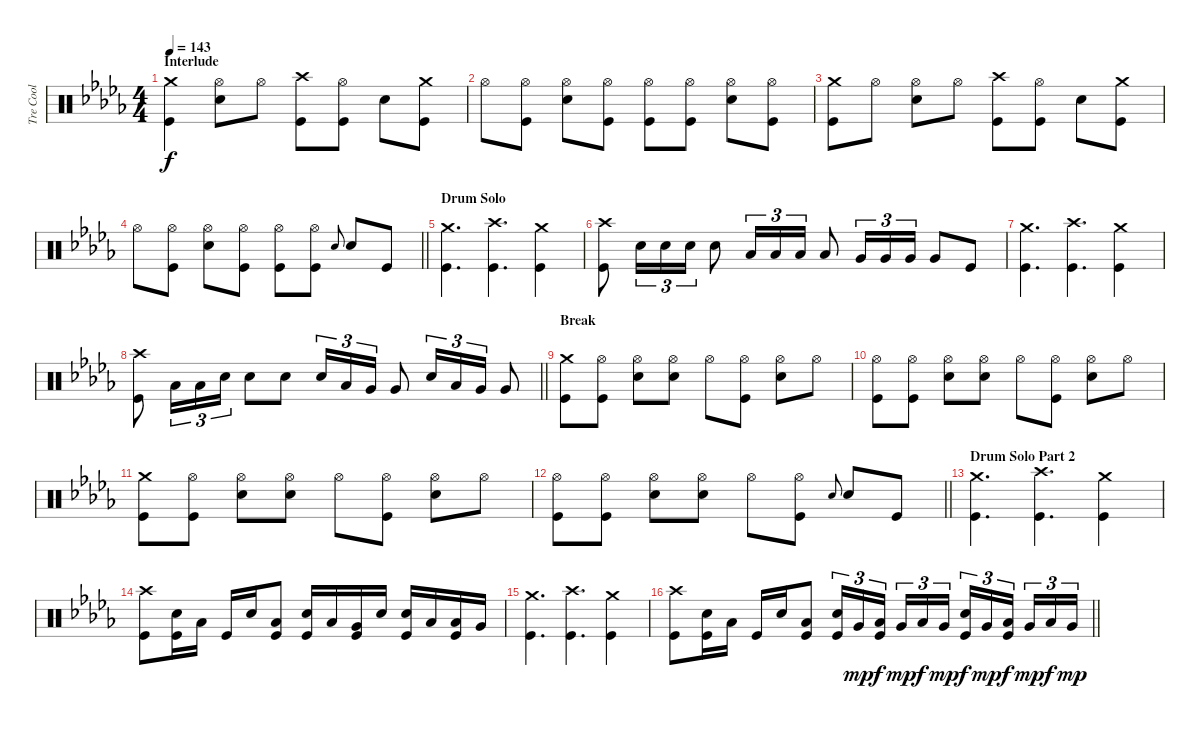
\track ("Tre Cool" "Tre Cool") {instrument percussion}
\staff {score}
\articulation defaults
\ts (4 4)
\section ("" "Interlude")
\tempo 143
\clef neutral
\ks db
("Crash medium (hit)" "Kick (hit)").4{dy f} ("Hi-Hat (open)" "Electric Snare (hit)").8 "Hi-Hat (open)".8 ("Crash high (hit)" "Kick (hit)").8 ("Hi-Hat (open)" "Kick (hit)").8 "Electric Snare (hit)".8 ("Crash medium (hit)" "Kick (hit)").8 |
"Hi-Hat (open)".8 ("Hi-Hat (open)" "Kick (hit)").8 ("Hi-Hat (open)" "Electric Snare (hit)").8 ("Hi-Hat (open)" "Kick (hit)").8 ("Hi-Hat (open)" "Kick (hit)").8 ("Hi-Hat (open)" "Kick (hit)").8 ("Hi-Hat (open)" "Electric Snare (hit)").8 ("Hi-Hat (open)" "Kick (hit)").8 |
("Crash medium (hit)" "Kick (hit)").8 "Hi-Hat (open)".8 ("Hi-Hat (open)" "Electric Snare (hit)").8 "Hi-Hat (open)".8 ("Crash high (hit)" "Kick (hit)").8 ("Hi-Hat (open)" "Kick (hit)").8 "Electric Snare (hit)".8 ("Crash medium (hit)" "Kick (hit)").8 |
\barLineRight lightlight "Hi-Hat (open)".8
("Hi-Hat (open)" "Kick (hit)").8 ("Hi-Hat (open)" "Electric Snare (hit)").8 ("Hi-Hat (open)" "Kick (hit)").8 ("Hi-Hat (open)" "Kick (hit)").8 ("Hi-Hat (open)" "Kick (hit)").8 "Electric Snare (hit)".8{gr onbeat} "Electric Snare (hit)".8 "Kick (hit)".8 |
\section ("" "Drum Solo")
("Crash medium (hit)" "Kick (hit)").4{d} ("Crash high (hit)" "Kick (hit)").4{d} ("Crash medium (hit)" "Kick (hit)").4 |
("Crash high (hit)" "Kick (hit)").8 "Electric Snare (hit)".16{tu (3 2)} "Electric Snare (hit)".16{tu (3 2)} "Electric Snare (hit)".16{tu (3 2)} "Electric Snare (hit)".8 "Low Tom (hit)".16{tu (3 2)} "Low Tom (hit)".16{tu (3 2)} "Low Tom (hit)".16{tu (3 2)} "Low Tom (hit)".8 "Very Low Tom (hit)".16{tu (3 2)} "Very Low Tom (hit)".16{tu (3 2)} "Very Low Tom (hit)".16{tu (3 2)} "Very Low Tom (hit)".8 "Kick (hit)".8 |
("Crash medium (hit)" "Kick (hit)").4{d} ("Crash high (hit)" "Kick (hit)").4{d} ("Crash medium (hit)" "Kick (hit)").4 |
\barLineRight lightlight
("Crash high (hit)" "Kick (hit)").8 "Low Tom (hit)".16{tu (3 2)} "Low Tom (hit)".16{tu (3 2)} "Electric Snare (hit)".16{tu (3 2)} "Electric Snare (hit)".8 "Electric Snare (hit)".8 "Electric Snare (hit)".16{tu (3 2)} "Low Tom (hit)".16{tu (3 2)} "Very Low Tom (hit)".16{tu (3 2)} "Very Low Tom (hit)".8 "Electric Snare (hit)".16{tu (3 2)} "Low Tom (hit)".16{tu (3 2)} "Very Low Tom (hit)".16{tu (3 2)} "Very Low Tom (hit)".8 |
\section ("" "Break")
("Crash medium (hit)" "Kick (hit)").8 ("Hi-Hat (open)" "Kick (hit)").8 ("Hi-Hat (open)" "Electric Snare (hit)").8 ("Hi-Hat (open)" "Electric Snare (hit)").8 "Hi-Hat (open)".8 ("Hi-Hat (open)" "Kick (hit)").8 ("Hi-Hat (open)" "Electric Snare (hit)").8 "Hi-Hat (open)".8 |
("Hi-Hat (open)" "Kick (hit)").8 ("Hi-Hat (open)" "Kick (hit)").8 ("Hi-Hat (open)" "Electric Snare (hit)").8 ("Hi-Hat (open)" "Electric Snare (hit)").8 "Hi-Hat (open)".8 ("Hi-Hat (open)" "Kick (hit)").8 ("Hi-Hat (open)" "Electric Snare (hit)").8 "Hi-Hat (open)".8 |
("Crash medium (hit)" "Kick (hit)").8 ("Hi-Hat (open)" "Kick (hit)").8 ("Hi-Hat (open)" "Electric Snare (hit)").8 ("Hi-Hat (open)" "Electric Snare (hit)").8 "Hi-Hat (open)".8 ("Hi-Hat (open)" "Kick (hit)").8 ("Hi-Hat (open)" "Electric Snare (hit)").8 "Hi-Hat (open)".8 |
\barLineRight lightlight
("Hi-Hat (open)" "Kick (hit)").8 ("Hi-Hat (open)" "Kick (hit)").8 ("Hi-Hat (open)" "Electric Snare (hit)").8 ("Hi-Hat (open)" "Electric Snare (hit)").8 "Hi-Hat (open)".8 ("Hi-Hat (open)" "Kick (hit)").8 "Electric Snare (hit)".8{gr onbeat} "Electric Snare (hit)".8 "Kick (hit)".8 |
\section ("" "Drum Solo Part 2")
("Crash medium (hit)" "Kick (hit)").4{d} ("Crash high (hit)" "Kick (hit)").4{d} ("Crash medium (hit)" "Kick (hit)").4 |
("Crash high (hit)" "Kick (hit)").8 ("Electric Snare (hit)" "Kick (hit)").16 "Low Tom (hit)".16 "Kick (hit)".16 "Electric Snare (hit)".16 ("Low Tom (hit)" "Kick (hit)").8 ("Electric Snare (hit)" "Kick (hit)").16 "Low Tom (hit)".16 ("Very Low Tom (hit)" "Kick (hit)").16 "Electric Snare (hit)".16 ("Electric Snare (hit)" "Kick (hit)").16 "Low Tom (hit)".16 ("Low Floor Tom (hit)" "Kick (hit)").16 "Very Low Tom (hit)".16 |
("Crash medium (hit)" "Kick (hit)").4{d} ("Crash high (hit)" "Kick (hit)").4{d} ("Crash medium (hit)" "Kick (hit)").4 |
\barLineRight lightlight
("Crash high (hit)" "Kick (hit)").8 ("Electric Snare (hit)" "Kick (hit)").16 "Low Tom (hit)".16 "Kick (hit)".16 "Electric Snare (hit)".16 ("Low Tom (hit)" "Kick (hit)").8 ("Electric Snare (hit)" "Kick (hit)").16{tu (3 2)} "Very Low Tom (hit)".16{tu (3 2) dy mp} ("Low Floor Tom (hit)" "Kick (hit)").16{tu (3 2) dy f beam splitsecondary} "Very Low Tom (hit)".16{tu (3 2) dy mp} "Low Floor Tom (hit)".16{tu (3 2) dy f} "Very Low Tom (hit)".16{tu (3 2) dy mp} ("Electric Snare (hit)" "Kick (hit)").16{tu (3 2) dy f} "Very Low Tom (hit)".16{tu (3 2) dy mp} ("Low Floor Tom (hit)" "Kick (hit)").16{tu (3 2) dy f beam splitsecondary} "Very Low Tom (hit)".16{tu (3 2) dy mp} "Low Floor Tom (hit)".16{tu (3 2) dy f} "Very Low Tom (hit)".16{tu (3 2) dy mp}
